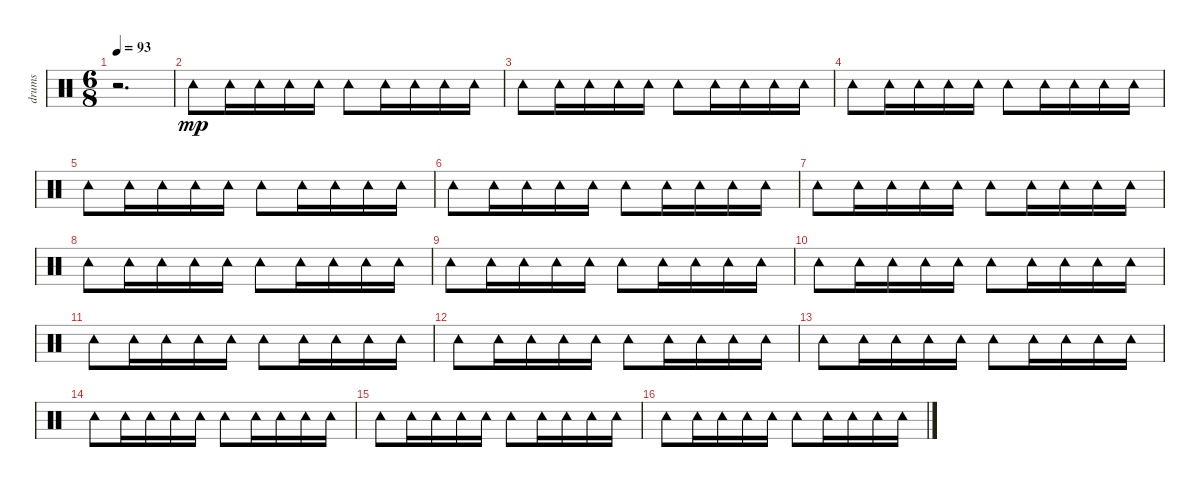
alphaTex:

\track ("drums" "drums") {instrument percussion}
\staff {score}
\articulation defaults
\ts (6 8)
\tempo 93
\clef neutral
\ks c
r.2{d dy mp} |
"Tambourine (hit)".8 "Tambourine (hit)".16 "Tambourine (hit)".16 "Tambourine (hit)".16 "Tambourine (hit)".16 "Tambourine (hit)".8 "Tambourine (hit)".16 "Tambourine (hit)".16 "Tambourine (hit)".16 "Tambourine (hit)".16 |
"Tambourine (hit)".8 "Tambourine (hit)".16 "Tambourine (hit)".16 "Tambourine (hit)".16 "Tambourine (hit)".16 "Tambourine (hit)".8 "Tambourine (hit)".16 "Tambourine (hit)".16 "Tambourine (hit)".16 "Tambourine (hit)".16 |
"Tambourine (hit)".8 "Tambourine (hit)".16 "Tambourine (hit)".16 "Tambourine (hit)".16 "Tambourine (hit)".16 "Tambourine (hit)".8 "Tambourine (hit)".16 "Tambourine (hit)".16 "Tambourine (hit)".16 "Tambourine (hit)".16 |
"Tambourine (hit)".8 "Tambourine (hit)".16 "Tambourine (hit)".16 "Tambourine (hit)".16 "Tambourine (hit)".16 "Tambourine (hit)".8 "Tambourine (hit)".16 "Tambourine (hit)".16 "Tambourine (hit)".16 "Tambourine (hit)".16 |
"Tambourine (hit)".8 "Tambourine (hit)".16 "Tambourine (hit)".16 "Tambourine (hit)".16 "Tambourine (hit)".16 "Tambourine (hit)".8 "Tambourine (hit)".16 "Tambourine (hit)".16 "Tambourine (hit)".16 "Tambourine (hit)".16 |
"Tambourine (hit)".8 "Tambourine (hit)".16 "Tambourine (hit)".16 "Tambourine (hit)".16 "Tambourine (hit)".16 "Tambourine (hit)".8 "Tambourine (hit)".16 "Tambourine (hit)".16 "Tambourine (hit)".16 "Tambourine (hit)".16 |
"Tambourine (hit)".8 "Tambourine (hit)".16 "Tambourine (hit)".16 "Tambourine (hit)".16 "Tambourine (hit)".16 "Tambourine (hit)".8 "Tambourine (hit)".16 "Tambourine (hit)".16 "Tambourine (hit)".16 "Tambourine (hit)".16 |
"Tambourine (hit)".8 "Tambourine (hit)".16 "Tambourine (hit)".16 "Tambourine (hit)".16 "Tambourine (hit)".16 "Tambourine (hit)".8 "Tambourine (hit)".16 "Tambourine (hit)".16 "Tambourine (hit)".16 "Tambourine (hit)".16 |
"Tambourine (hit)".8 "Tambourine (hit)".16 "Tambourine (hit)".16 "Tambourine (hit)".16 "Tambourine (hit)".16 "Tambourine (hit)".8 "Tambourine (hit)".16 "Tambourine (hit)".16 "Tambourine (hit)".16 "Tambourine (hit)".16 |
"Tambourine (hit)".8 "Tambourine (hit)".16 "Tambourine (hit)".16 "Tambourine (hit)".16 "Tambourine (hit)".16 "Tambourine (hit)".8 "Tambourine (hit)".16 "Tambourine (hit)".16 "Tambourine (hit)".16 "Tambourine (hit)".16 |
"Tambourine (hit)".8 "Tambourine (hit)".16 "Tambourine (hit)".16 "Tambourine (hit)".16 "Tambourine (hit)".16 "Tambourine (hit)".8 "Tambourine (hit)".16 "Tambourine (hit)".16 "Tambourine (hit)".16 "Tambourine (hit)".16 |
"Tambourine (hit)".8 "Tambourine (hit)".16 "Tambourine (hit)".16 "Tambourine (hit)".16 "Tambourine (hit)".16 "Tambourine (hit)".8 "Tambourine (hit)".16 "Tambourine (hit)".16 "Tambourine (hit)".16 "Tambourine (hit)".16 |
"Tambourine (hit)".8 "Tambourine (hit)".16 "Tambourine (hit)".16 "Tambourine (hit)".16 "Tambourine (hit)".16 "Tambourine (hit)".8 "Tambourine (hit)".16 "Tambourine (hit)".16 "Tambourine (hit)".16 "Tambourine (hit)".16 |
"Tambourine (hit)".8 "Tambourine (hit)".16 "Tambourine (hit)".16 "Tambourine (hit)".16 "Tambourine (hit)".16 "Tambourine (hit)".8 "Tambourine (hit)".16 "Tambourine (hit)".16 "Tambourine (hit)".16 "Tambourine (hit)".16 |
"Tambourine (hit)".8 "Tambourine (hit)".16 "Tambourine (hit)".16 "Tambourine (hit)".16 "Tambourine (hit)".16 "Tambourine (hit)".8 "Tambourine (hit)".16 "Tambourine (hit)".16 "Tambourine (hit)".16 "Tambourine (hit)".16
